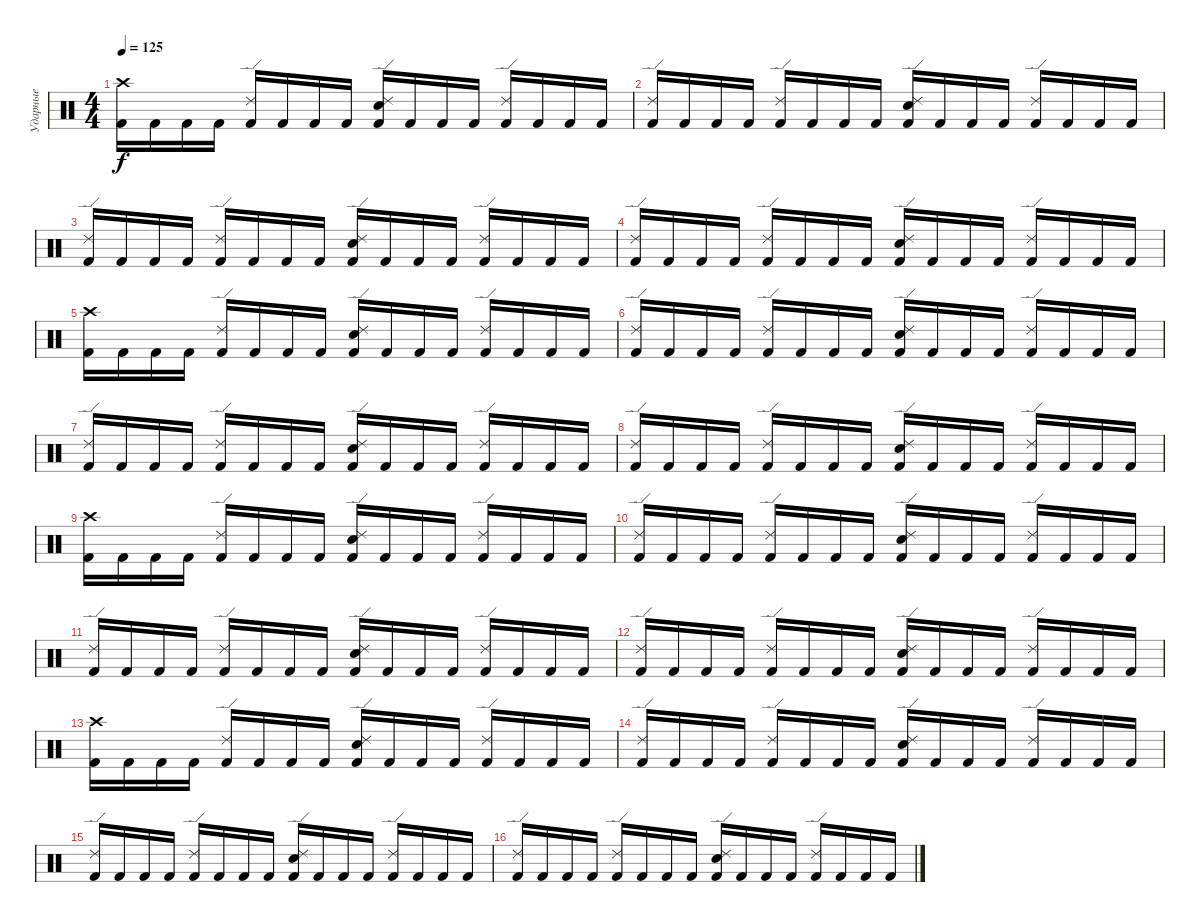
\track ("Ударные" "Ударные") {instrument percussion}
\staff {score}
\articulation defaults
\ts (4 4)
\tempo 125
\clef neutral
\ks c
("Crash high (hit)" "Kick (hit) 2").16{dy f} "Kick (hit) 2".16 "Kick (hit) 2".16 "Kick (hit) 2".16 ("Ride (edge) 2" "Kick (hit) 2").16 "Kick (hit) 2".16 "Kick (hit) 2".16 "Kick (hit) 2".16 ("Ride (edge) 2" "Electric Snare (hit)" "Kick (hit) 2").16 "Kick (hit) 2".16 "Kick (hit) 2".16 "Kick (hit) 2".16 ("Ride (edge) 2" "Kick (hit) 2").16 "Kick (hit) 2".16 "Kick (hit) 2".16 "Kick (hit) 2".16 |
("Ride (edge) 2" "Kick (hit) 2").16 "Kick (hit) 2".16 "Kick (hit) 2".16 "Kick (hit) 2".16 ("Ride (edge) 2" "Kick (hit) 2").16 "Kick (hit) 2".16 "Kick (hit) 2".16 "Kick (hit) 2".16 ("Ride (edge) 2" "Electric Snare (hit)" "Kick (hit) 2").16 "Kick (hit) 2".16 "Kick (hit) 2".16 "Kick (hit) 2".16 ("Ride (edge) 2" "Kick (hit) 2").16 "Kick (hit) 2".16 "Kick (hit) 2".16 "Kick (hit) 2".16 |
("Ride (edge) 2" "Kick (hit) 2").16 "Kick (hit) 2".16 "Kick (hit) 2".16 "Kick (hit) 2".16 ("Ride (edge) 2" "Kick (hit) 2").16 "Kick (hit) 2".16 "Kick (hit) 2".16 "Kick (hit) 2".16 ("Ride (edge) 2" "Electric Snare (hit)" "Kick (hit) 2").16 "Kick (hit) 2".16 "Kick (hit) 2".16 "Kick (hit) 2".16 ("Ride (edge) 2" "Kick (hit) 2").16 "Kick (hit) 2".16 "Kick (hit) 2".16 "Kick (hit) 2".16 |
("Ride (edge) 2" "Kick (hit) 2").16 "Kick (hit) 2".16 "Kick (hit) 2".16 "Kick (hit) 2".16 ("Ride (edge) 2" "Kick (hit) 2").16 "Kick (hit) 2".16 "Kick (hit) 2".16 "Kick (hit) 2".16 ("Ride (edge) 2" "Electric Snare (hit)" "Kick (hit) 2").16 "Kick (hit) 2".16 "Kick (hit) 2".16 "Kick (hit) 2".16 ("Ride (edge) 2" "Kick (hit) 2").16 "Kick (hit) 2".16 "Kick (hit) 2".16 "Kick (hit) 2".16 |
("Crash high (hit)" "Kick (hit) 2").16 "Kick (hit) 2".16 "Kick (hit) 2".16 "Kick (hit) 2".16 ("Ride (edge) 2" "Kick (hit) 2").16 "Kick (hit) 2".16 "Kick (hit) 2".16 "Kick (hit) 2".16 ("Ride (edge) 2" "Electric Snare (hit)" "Kick (hit) 2").16 "Kick (hit) 2".16 "Kick (hit) 2".16 "Kick (hit) 2".16 ("Ride (edge) 2" "Kick (hit) 2").16 "Kick (hit) 2".16 "Kick (hit) 2".16 "Kick (hit) 2".16 |
("Ride (edge) 2" "Kick (hit) 2").16 "Kick (hit) 2".16 "Kick (hit) 2".16 "Kick (hit) 2".16 ("Ride (edge) 2" "Kick (hit) 2").16 "Kick (hit) 2".16 "Kick (hit) 2".16 "Kick (hit) 2".16 ("Ride (edge) 2" "Electric Snare (hit)" "Kick (hit) 2").16 "Kick (hit) 2".16 "Kick (hit) 2".16 "Kick (hit) 2".16 ("Ride (edge) 2" "Kick (hit) 2").16 "Kick (hit) 2".16 "Kick (hit) 2".16 "Kick (hit) 2".16 |
("Ride (edge) 2" "Kick (hit) 2").16 "Kick (hit) 2".16 "Kick (hit) 2".16 "Kick (hit) 2".16 ("Ride (edge) 2" "Kick (hit) 2").16 "Kick (hit) 2".16 "Kick (hit) 2".16 "Kick (hit) 2".16 ("Ride (edge) 2" "Electric Snare (hit)" "Kick (hit) 2").16 "Kick (hit) 2".16 "Kick (hit) 2".16 "Kick (hit) 2".16 ("Ride (edge) 2" "Kick (hit) 2").16 "Kick (hit) 2".16 "Kick (hit) 2".16 "Kick (hit) 2".16 |
("Ride (edge) 2" "Kick (hit) 2").16 "Kick (hit) 2".16 "Kick (hit) 2".16 "Kick (hit) 2".16 ("Ride (edge) 2" "Kick (hit) 2").16 "Kick (hit) 2".16 "Kick (hit) 2".16 "Kick (hit) 2".16 ("Ride (edge) 2" "Electric Snare (hit)" "Kick (hit) 2").16 "Kick (hit) 2".16 "Kick (hit) 2".16 "Kick (hit) 2".16 ("Ride (edge) 2" "Kick (hit) 2").16 "Kick (hit) 2".16 "Kick (hit) 2".16 "Kick (hit) 2".16 |
("Crash high (hit)" "Kick (hit) 2").16 "Kick (hit) 2".16 "Kick (hit) 2".16 "Kick (hit) 2".16 ("Ride (edge) 2" "Kick (hit) 2").16 "Kick (hit) 2".16 "Kick (hit) 2".16 "Kick (hit) 2".16 ("Ride (edge) 2" "Electric Snare (hit)" "Kick (hit) 2").16 "Kick (hit) 2".16 "Kick (hit) 2".16 "Kick (hit) 2".16 ("Ride (edge) 2" "Kick (hit) 2").16 "Kick (hit) 2".16 "Kick (hit) 2".16 "Kick (hit) 2".16 |
("Ride (edge) 2" "Kick (hit) 2").16 "Kick (hit) 2".16 "Kick (hit) 2".16 "Kick (hit) 2".16 ("Ride (edge) 2" "Kick (hit) 2").16 "Kick (hit) 2".16 "Kick (hit) 2".16 "Kick (hit) 2".16 ("Ride (edge) 2" "Electric Snare (hit)" "Kick (hit) 2").16 "Kick (hit) 2".16 "Kick (hit) 2".16 "Kick (hit) 2".16 ("Ride (edge) 2" "Kick (hit) 2").16 "Kick (hit) 2".16 "Kick (hit) 2".16 "Kick (hit) 2".16 |
("Ride (edge) 2" "Kick (hit) 2").16 "Kick (hit) 2".16 "Kick (hit) 2".16 "Kick (hit) 2".16 ("Ride (edge) 2" "Kick (hit) 2").16 "Kick (hit) 2".16 "Kick (hit) 2".16 "Kick (hit) 2".16 ("Ride (edge) 2" "Electric Snare (hit)" "Kick (hit) 2").16 "Kick (hit) 2".16 "Kick (hit) 2".16 "Kick (hit) 2".16 ("Ride (edge) 2" "Kick (hit) 2").16 "Kick (hit) 2".16 "Kick (hit) 2".16 "Kick (hit) 2".16 |
("Ride (edge) 2" "Kick (hit) 2").16 "Kick (hit) 2".16 "Kick (hit) 2".16 "Kick (hit) 2".16 ("Ride (edge) 2" "Kick (hit) 2").16 "Kick (hit) 2".16 "Kick (hit) 2".16 "Kick (hit) 2".16 ("Ride (edge) 2" "Electric Snare (hit)" "Kick (hit) 2").16 "Kick (hit) 2".16 "Kick (hit) 2".16 "Kick (hit) 2".16 ("Ride (edge) 2" "Kick (hit) 2").16 "Kick (hit) 2".16 "Kick (hit) 2".16 "Kick (hit) 2".16 |
("Crash high (hit)" "Kick (hit) 2").16 "Kick (hit) 2".16 "Kick (hit) 2".16 "Kick (hit) 2".16 ("Ride (edge) 2" "Kick (hit) 2").16 "Kick (hit) 2".16 "Kick (hit) 2".16 "Kick (hit) 2".16 ("Ride (edge) 2" "Electric Snare (hit)" "Kick (hit) 2").16 "Kick (hit) 2".16 "Kick (hit) 2".16 "Kick (hit) 2".16 ("Ride (edge) 2" "Kick (hit) 2").16 "Kick (hit) 2".16 "Kick (hit) 2".16 "Kick (hit) 2".16 |
("Ride (edge) 2" "Kick (hit) 2").16 "Kick (hit) 2".16 "Kick (hit) 2".16 "Kick (hit) 2".16 ("Ride (edge) 2" "Kick (hit) 2").16 "Kick (hit) 2".16 "Kick (hit) 2".16 "Kick (hit) 2".16 ("Ride (edge) 2" "Electric Snare (hit)" "Kick (hit) 2").16 "Kick (hit) 2".16 "Kick (hit) 2".16 "Kick (hit) 2".16 ("Ride (edge) 2" "Kick (hit) 2").16 "Kick (hit) 2".16 "Kick (hit) 2".16 "Kick (hit) 2".16 |
("Ride (edge) 2" "Kick (hit) 2").16 "Kick (hit) 2".16 "Kick (hit) 2".16 "Kick (hit) 2".16 ("Ride (edge) 2" "Kick (hit) 2").16 "Kick (hit) 2".16 "Kick (hit) 2".16 "Kick (hit) 2".16 ("Ride (edge) 2" "Electric Snare (hit)" "Kick (hit) 2").16 "Kick (hit) 2".16 "Kick (hit) 2".16 "Kick (hit) 2".16 ("Ride (edge) 2" "Kick (hit) 2").16 "Kick (hit) 2".16 "Kick (hit) 2".16 "Kick (hit) 2".16 |
("Ride (edge) 2" "Kick (hit) 2").16 "Kick (hit) 2".16 "Kick (hit) 2".16 "Kick (hit) 2".16 ("Ride (edge) 2" "Kick (hit) 2").16 "Kick (hit) 2".16 "Kick (hit) 2".16 "Kick (hit) 2".16 ("Ride (edge) 2" "Electric Snare (hit)" "Kick (hit) 2").16 "Kick (hit) 2".16 "Kick (hit) 2".16 "Kick (hit) 2".16 ("Ride (edge) 2" "Kick (hit) 2").16 "Kick (hit) 2".16 "Kick (hit) 2".16 "Kick (hit) 2".16
